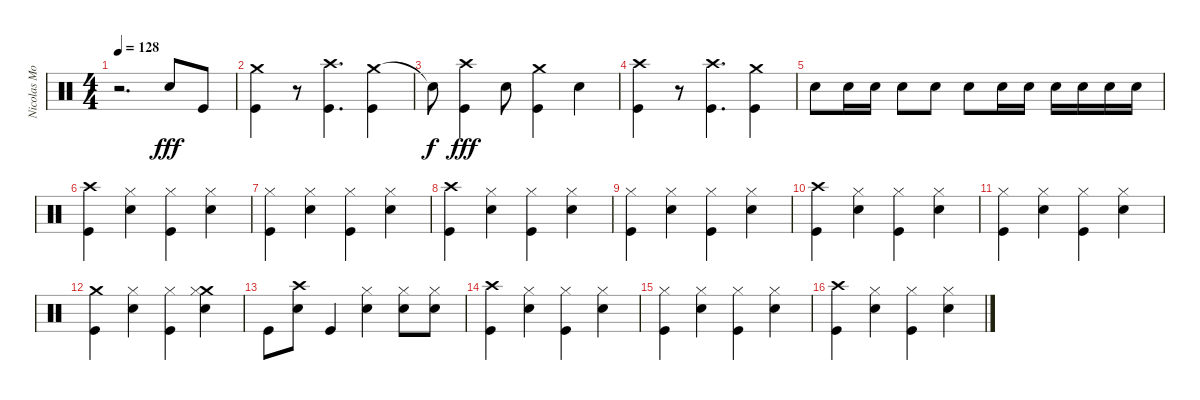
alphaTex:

\track ("Nicolas Mosquera" "Nicolas Mo") {mute instrument percussion}
\staff {score}
\articulation defaults
\ts (4 4)
\tempo 128
\clef neutral
\ks c
r.2{d dy fff} "Snare (hit) 2".8 "Kick (hit)".8 |
("Crash medium (hit)" "Kick (hit)").4 r.8 ("Crash high (hit)" "Kick (hit)").4{d} ("Crash medium (hit)" "Kick (hit)").4 |
"Snare (hit)"{t}.8{dy f} ("Kick (hit)" "Crash high (hit)").4{dy fff} "Snare (hit) 2".8 ("Crash medium (hit)" "Kick (hit)").4 "Snare (hit) 2".4 |
("Kick (hit)" "Crash high (hit)").4 r.8 ("Crash high (hit)" "Kick (hit)").4{d} ("Crash medium (hit)" "Kick (hit)").4 |
"Snare (hit) 2".8 "Snare (hit) 2".16 "Snare (hit) 2".16 "Snare (hit) 2".8 "Snare (hit) 2".8 "Snare (hit) 2".8 "Snare (hit) 2".16 "Snare (hit) 2".16 "Snare (hit) 2".16 "Snare (hit) 2".16 "Snare (hit) 2".16 "Snare (hit) 2".16 |
("Kick (hit)" "Crash high (hit)").4 ("Hi-Hat (closed)" "Snare (hit) 2").4 ("Hi-Hat (closed)" "Kick (hit)").4 ("Hi-Hat (closed)" "Snare (hit) 2").4 |
("Kick (hit)" "Hi-Hat (closed)").4 ("Snare (hit) 2" "Hi-Hat (closed)").4 ("Kick (hit)" "Hi-Hat (closed)").4 ("Snare (hit) 2" "Hi-Hat (closed)").4 |
("Kick (hit)" "Crash high (hit)").4 ("Snare (hit) 2" "Hi-Hat (closed)").4 ("Kick (hit)" "Hi-Hat (closed)").4 ("Snare (hit) 2" "Hi-Hat (closed)").4 |
("Kick (hit)" "Hi-Hat (closed)").4 ("Snare (hit) 2" "Hi-Hat (closed)").4 ("Kick (hit)" "Hi-Hat (closed)").4 ("Snare (hit) 2" "Hi-Hat (closed)").4 |
("Kick (hit)" "Crash high (hit)").4 ("Snare (hit) 2" "Hi-Hat (closed)").4 ("Kick (hit)" "Hi-Hat (closed)").4 ("Snare (hit) 2" "Hi-Hat (closed)").4 |
("Kick (hit)" "Hi-Hat (closed)").4 ("Snare (hit) 2" "Hi-Hat (closed)").4 ("Kick (hit)" "Hi-Hat (closed)").4 ("Snare (hit) 2" "Hi-Hat (closed)").4 |
("Crash medium (hit)" "Kick (hit)").4 ("Hi-Hat (closed)" "Snare (hit) 2").4 ("Kick (hit)" "Hi-Hat (closed)").4 ("Crash medium (hit)" "Snare (hit) 2" "Hi-Hat (closed)").4 |
"Kick (hit)".8 ("Snare (hit) 2" "Crash high (hit)").8 "Kick (hit)".4 ("Snare (hit) 2" "Hi-Hat (closed)").4 ("Snare (hit) 2" "Hi-Hat (closed)").8 ("Snare (hit) 2" "Hi-Hat (closed)").8 |
("Crash high (hit)" "Kick (hit)").4 ("Snare (hit) 2" "Hi-Hat (closed)").4 ("Kick (hit)" "Hi-Hat (closed)").4 ("Snare (hit) 2" "Hi-Hat (closed)").4 |
("Hi-Hat (closed)" "Kick (hit)").4 ("Snare (hit) 2" "Hi-Hat (closed)").4 ("Kick (hit)" "Hi-Hat (closed)").4 ("Snare (hit) 2" "Hi-Hat (closed)").4 |
("Kick (hit)" "Crash high (hit)").4 ("Snare (hit) 2" "Hi-Hat (closed)").4 ("Kick (hit)" "Hi-Hat (closed)").4 ("Snare (hit) 2" "Hi-Hat (closed)").4
